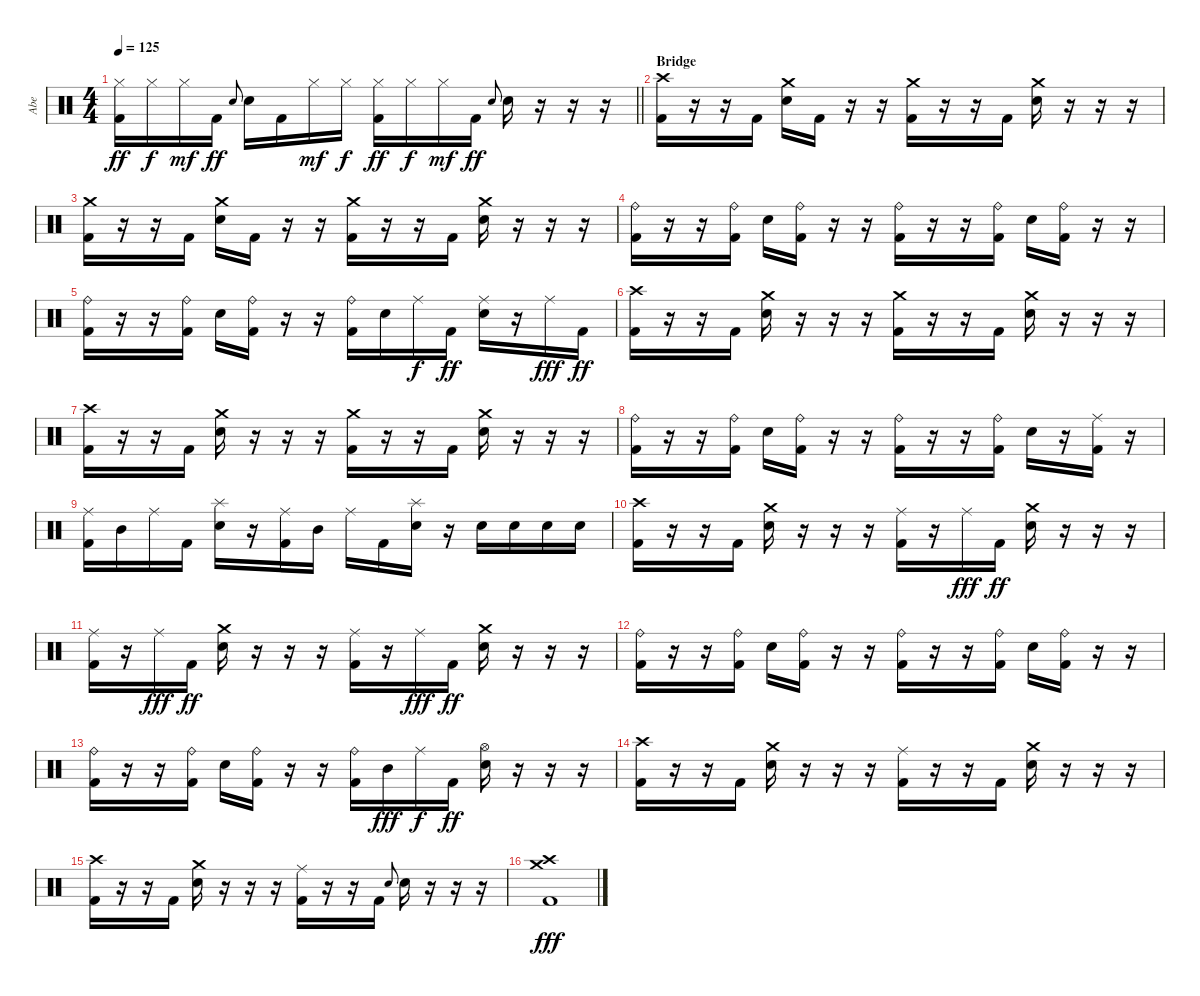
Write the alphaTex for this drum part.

\track ("Abe" "Abe") {instrument percussion}
\staff {score}
\articulation defaults
\ts (4 4)
\tempo 125
\clef neutral
\barLineRight lightlight
\ks c
("Hi-Hat (closed)" "Kick (hit) 2").16{dy ff} "Hi-Hat (closed)".16{dy f} "Hi-Hat (closed)".16{dy mf} "Kick (hit) 2".16{dy ff} "Electric Snare (hit)".8{gr onbeat} "Electric Snare (hit)".16 "Kick (hit) 2".16 "Hi-Hat (closed)".16{dy mf} "Hi-Hat (closed)".16{dy f} ("Hi-Hat (closed)" "Kick (hit) 2").16{dy ff} "Hi-Hat (closed)".16{dy f} "Hi-Hat (closed)".16{dy mf} "Kick (hit) 2".16{dy ff} "Electric Snare (hit)".8{gr onbeat} "Electric Snare (hit)".16 r.16 r.16 r.16 |
\section ("" "Bridge")
("Crash high (hit)" "Kick (hit) 2").16 r.16 r.16 "Kick (hit) 2".16 ("Crash medium (hit)" "Electric Snare (hit)").16 "Kick (hit) 2".16 r.16 r.16 ("Crash medium (hit)" "Kick (hit) 2").16 r.16 r.16 "Kick (hit) 2".16 ("Crash medium (hit)" "Electric Snare (hit)").16 r.16 r.16 r.16 |
("Crash medium (hit)" "Kick (hit) 2").16 r.16 r.16 "Kick (hit) 2".16 ("Crash medium (hit)" "Electric Snare (hit)").16 "Kick (hit) 2".16 r.16 r.16 ("Crash medium (hit)" "Kick (hit) 2").16 r.16 r.16 "Kick (hit) 2".16 ("Crash medium (hit)" "Electric Snare (hit)").16 r.16 r.16 r.16 |
("Ride (bell)" "Kick (hit) 2").16 r.16 r.16 ("Ride (bell)" "Kick (hit) 2").16 "Electric Snare (hit)".16 ("Ride (bell)" "Kick (hit) 2").16 r.16 r.16 ("Ride (bell)" "Kick (hit) 2").16 r.16 r.16 ("Ride (bell)" "Kick (hit) 2").16 "Electric Snare (hit)".16 ("Ride (bell)" "Kick (hit) 2").16 r.16 r.16 |
("Ride (bell)" "Kick (hit) 2").16 r.16 r.16 ("Ride (bell)" "Kick (hit) 2").16 "Electric Snare (hit)".16 ("Ride (bell)" "Kick (hit) 2").16 r.16 r.16 ("Ride (bell)" "Kick (hit) 2").16 "Electric Snare (hit)".16 "Ride (middle)".16{dy f} "Kick (hit) 2".16{dy ff} ("Ride (middle)" "Electric Snare (hit)").16 r.16 "Ride (middle)".16{dy fff} "Kick (hit) 2".16{dy ff} |
("Crash high (hit)" "Kick (hit) 2").16 r.16 r.16 "Kick (hit) 2".16 ("Crash medium (hit)" "Electric Snare (hit)").16 r.16 r.16 r.16 ("Crash medium (hit)" "Kick (hit) 2").16 r.16 r.16 "Kick (hit) 2".16 ("Crash medium (hit)" "Electric Snare (hit)").16 r.16 r.16 r.16 |
("Crash high (hit)" "Kick (hit) 2").16 r.16 r.16 "Kick (hit) 2".16 ("Crash medium (hit)" "Electric Snare (hit)").16 r.16 r.16 r.16 ("Crash medium (hit)" "Kick (hit) 2").16 r.16 r.16 "Kick (hit) 2".16 ("Crash medium (hit)" "Electric Snare (hit)").16 r.16 r.16 r.16 |
("Ride (bell)" "Kick (hit) 2").16 r.16 r.16 ("Ride (bell)" "Kick (hit) 2").16 "Electric Snare (hit)".16 ("Ride (bell)" "Kick (hit) 2").16 r.16 r.16 ("Ride (bell)" "Kick (hit) 2").16 r.16 r.16 ("Ride (bell)" "Kick (hit) 2").16 "Electric Snare (hit)".16 r.16 ("Ride (middle)" "Kick (hit) 2").16 r.16 |
("Ride (middle)" "Kick (hit) 2").16 "Mid Tom (hit)".16 "Ride (middle)".16 "Kick (hit) 2".16 ("Splash (hit)" "Electric Snare (hit)").16 r.16 ("Ride (middle)" "Kick (hit) 2").16 "Mid Tom (hit)".16 "Ride (middle)".16 "Kick (hit) 2".16 ("Splash (hit)" "Electric Snare (hit)").16 r.16 "Electric Snare (hit)".16 "Electric Snare (hit)".16 "Electric Snare (hit)".16 "Electric Snare (hit)".16 |
("Crash high (hit)" "Kick (hit) 2").16 r.16 r.16 "Kick (hit) 2".16 ("Crash medium (hit)" "Electric Snare (hit)").16 r.16 r.16 r.16 ("Ride (middle)" "Kick (hit) 2").16 r.16 "Ride (middle)".16{dy fff} "Kick (hit) 2".16{dy ff} ("Crash medium (hit)" "Electric Snare (hit)").16 r.16 r.16 r.16 |
("Ride (middle)" "Kick (hit) 2").16 r.16 "Ride (middle)".16{dy fff} "Kick (hit) 2".16{dy ff} ("Crash medium (hit)" "Electric Snare (hit)").16 r.16 r.16 r.16 ("Ride (middle)" "Kick (hit) 2").16 r.16 "Ride (middle)".16{dy fff} "Kick (hit) 2".16{dy ff} ("Crash medium (hit)" "Electric Snare (hit)").16 r.16 r.16 r.16 |
("Ride (bell)" "Kick (hit) 2").16 r.16 r.16 ("Ride (bell)" "Kick (hit) 2").16 "Electric Snare (hit)".16 ("Ride (bell)" "Kick (hit) 2").16 r.16 r.16 ("Ride (bell)" "Kick (hit) 2").16 r.16 r.16 ("Ride (bell)" "Kick (hit) 2").16 "Electric Snare (hit)".16 ("Ride (bell)" "Kick (hit) 2").16 r.16 r.16 |
("Ride (bell)" "Kick (hit) 2").16 r.16 r.16 ("Ride (bell)" "Kick (hit) 2").16 "Electric Snare (hit)".16 ("Ride (bell)" "Kick (hit) 2").16 r.16 r.16 ("Ride (bell)" "Kick (hit) 2").16 "Mid Tom (hit)".16{dy fff} "Ride (middle)".16{dy f} "Kick (hit) 2".16{dy ff} ("Hi-Hat (open)" "Electric Snare (hit)").16 r.16 r.16 r.16 |
("Crash high (hit)" "Kick (hit) 2").16 r.16 r.16 "Kick (hit) 2".16 ("Crash medium (hit)" "Electric Snare (hit)").16 r.16 r.16 r.16 ("Ride (middle)" "Kick (hit) 2").16 r.16 r.16 "Kick (hit) 2".16 ("Crash medium (hit)" "Electric Snare (hit)").16 r.16 r.16 r.16 |
("Crash high (hit)" "Kick (hit) 2").16 r.16 r.16 "Kick (hit) 2".16 ("Crash medium (hit)" "Electric Snare (hit)").16 r.16 r.16 r.16 ("Ride (middle)" "Kick (hit) 2").16 r.16 r.16 "Kick (hit) 2".16 "Electric Snare (hit)".8{gr onbeat} "Electric Snare (hit)".16 r.16 r.16 r.16 |
("Crash medium (hit)" "Crash high (hit)" "Kick (hit) 2").1{dy fff}
